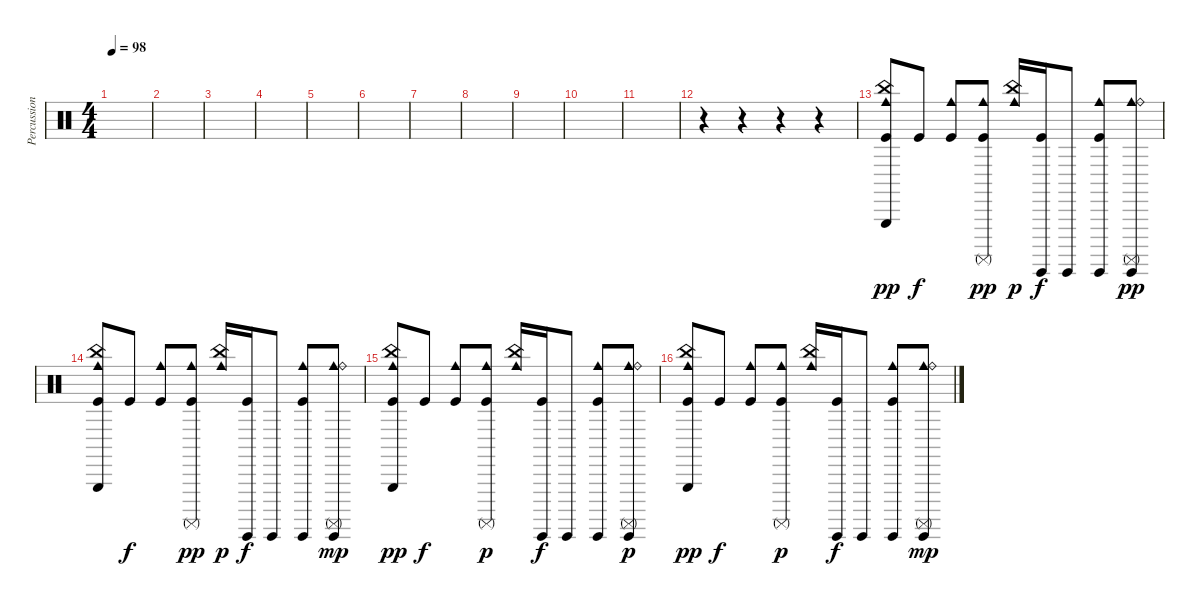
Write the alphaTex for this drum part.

\track ("Percussion" "Percussion") {instrument percussion}
\staff {score}
\articulation defaults
\ts (4 4)
\tempo 98
\clef neutral
\ks c
|
|
|
|
|
|
|
|
|
|
|
r.4 r.4 r.4 r.4 |
("Triangle (hit)" "China (hit)" "Cowbell medium (hit)" "Kick (hit)").8{dy pp} "Kick (hit)".8{dy f} ("Cowbell medium (hit)" "Kick (hit)").8 ("Surdo (mute)" "Cowbell medium (hit)" "Kick (hit)").8{dy pp} ("China (hit)" "Cowbell medium (hit)").16{dy p} ("Guiro (hit)" "Kick (hit)").16{dy f} "Guiro (hit)".8 ("Cowbell medium (hit)" "Guiro (hit)" "Kick (hit)").8 ("Surdo (mute)" "Cowbell medium (hit)" "Guiro (hit)" "Ride (bell)").8{dy pp} |
("Triangle (hit)" "China (hit)" "Cowbell medium (hit)" "Kick (hit)").8 "Kick (hit)".8{dy f} ("Cowbell medium (hit)" "Kick (hit)").8 ("Surdo (mute)" "Cowbell medium (hit)" "Kick (hit)").8{dy pp} ("China (hit)" "Cowbell medium (hit)").16{dy p} ("Guiro (hit)" "Kick (hit)").16{dy f} "Guiro (hit)".8 ("Cowbell medium (hit)" "Guiro (hit)" "Kick (hit)").8 ("Surdo (mute)" "Cowbell medium (hit)" "Guiro (hit)" "Ride (bell)").8{dy mp} |
("Triangle (hit)" "China (hit)" "Cowbell medium (hit)" "Kick (hit)").8{dy pp} "Kick (hit)".8{dy f} ("Cowbell medium (hit)" "Kick (hit)").8 ("Surdo (mute)" "Cowbell medium (hit)" "Kick (hit)").8{dy p} ("China (hit)" "Cowbell medium (hit)").16 ("Guiro (hit)" "Kick (hit)").16{dy f} "Guiro (hit)".8 ("Cowbell medium (hit)" "Guiro (hit)" "Kick (hit)").8 ("Surdo (mute)" "Cowbell medium (hit)" "Guiro (hit)" "Ride (bell)").8{dy p} |
("Triangle (hit)" "China (hit)" "Cowbell medium (hit)" "Kick (hit)").8{dy pp} "Kick (hit)".8{dy f} ("Cowbell medium (hit)" "Kick (hit)").8 ("Surdo (mute)" "Cowbell medium (hit)" "Kick (hit)").8{dy p} ("China (hit)" "Cowbell medium (hit)").16 ("Guiro (hit)" "Kick (hit)").16{dy f} "Guiro (hit)".8 ("Cowbell medium (hit)" "Guiro (hit)" "Kick (hit)").8 ("Surdo (mute)" "Cowbell medium (hit)" "Guiro (hit)" "Ride (bell)").8{dy mp}
